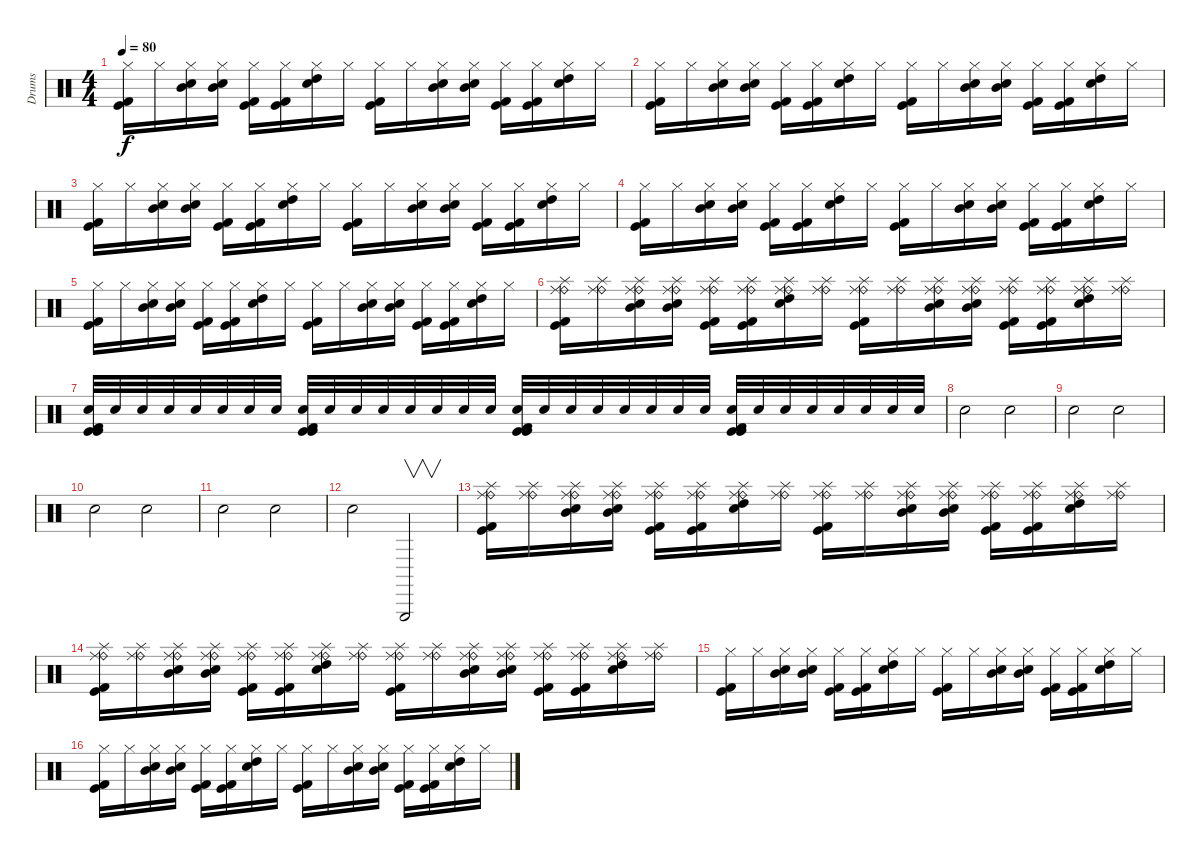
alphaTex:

\track ("Drums" "Drums") {instrument percussion}
\staff {score}
\articulation defaults
\ts (4 4)
\tempo 80
\clef neutral
\ks c
("Hi-Hat (closed)" "Kick (hit)" "Kick (hit) 2").16{dy f} "Hi-Hat (closed)".16 ("Hi-Hat (closed)" "Electric Snare (hit)" "Mid Tom (hit)").16 ("Hi-Hat (closed)" "Electric Snare (hit)" "Mid Tom (hit)").16 ("Hi-Hat (closed)" "Kick (hit)" "Kick (hit) 2").16 ("Hi-Hat (closed)" "Kick (hit)" "Kick (hit) 2").16 ("Hi-Hat (closed)" "Electric Snare (hit)" "High Tom (hit)").16 "Hi-Hat (closed)".16 ("Hi-Hat (closed)" "Kick (hit)" "Kick (hit) 2").16 "Hi-Hat (closed)".16 ("Hi-Hat (closed)" "Electric Snare (hit)" "Mid Tom (hit)").16 ("Hi-Hat (closed)" "Electric Snare (hit)" "Mid Tom (hit)").16 ("Hi-Hat (closed)" "Kick (hit)" "Kick (hit) 2").16 ("Hi-Hat (closed)" "Kick (hit)" "Kick (hit) 2").16 ("Hi-Hat (closed)" "Electric Snare (hit)" "High Tom (hit)").16 "Hi-Hat (closed)".16 |
("Hi-Hat (closed)" "Kick (hit)" "Kick (hit) 2").16 "Hi-Hat (closed)".16 ("Hi-Hat (closed)" "Electric Snare (hit)" "Mid Tom (hit)").16 ("Hi-Hat (closed)" "Electric Snare (hit)" "Mid Tom (hit)").16 ("Hi-Hat (closed)" "Kick (hit)" "Kick (hit) 2").16 ("Hi-Hat (closed)" "Kick (hit)" "Kick (hit) 2").16 ("Hi-Hat (closed)" "Electric Snare (hit)" "High Tom (hit)").16 "Hi-Hat (closed)".16 ("Hi-Hat (closed)" "Kick (hit)" "Kick (hit) 2").16 "Hi-Hat (closed)".16 ("Hi-Hat (closed)" "Electric Snare (hit)" "Mid Tom (hit)").16 ("Hi-Hat (closed)" "Electric Snare (hit)" "Mid Tom (hit)").16 ("Hi-Hat (closed)" "Kick (hit)" "Kick (hit) 2").16 ("Hi-Hat (closed)" "Kick (hit)" "Kick (hit) 2").16 ("Hi-Hat (closed)" "Electric Snare (hit)" "High Tom (hit)").16 "Hi-Hat (closed)".16 |
("Hi-Hat (closed)" "Kick (hit)" "Kick (hit) 2").16 "Hi-Hat (closed)".16 ("Hi-Hat (closed)" "Electric Snare (hit)" "Mid Tom (hit)").16 ("Hi-Hat (closed)" "Electric Snare (hit)" "Mid Tom (hit)").16 ("Hi-Hat (closed)" "Kick (hit)" "Kick (hit) 2").16 ("Hi-Hat (closed)" "Kick (hit)" "Kick (hit) 2").16 ("Hi-Hat (closed)" "Electric Snare (hit)" "High Tom (hit)").16 "Hi-Hat (closed)".16 ("Hi-Hat (closed)" "Kick (hit)" "Kick (hit) 2").16 "Hi-Hat (closed)".16 ("Hi-Hat (closed)" "Electric Snare (hit)" "Mid Tom (hit)").16 ("Hi-Hat (closed)" "Electric Snare (hit)" "Mid Tom (hit)").16 ("Hi-Hat (closed)" "Kick (hit)" "Kick (hit) 2").16 ("Hi-Hat (closed)" "Kick (hit)" "Kick (hit) 2").16 ("Hi-Hat (closed)" "Electric Snare (hit)" "High Tom (hit)").16 "Hi-Hat (closed)".16 |
("Hi-Hat (closed)" "Kick (hit)" "Kick (hit) 2").16 "Hi-Hat (closed)".16 ("Hi-Hat (closed)" "Electric Snare (hit)" "Mid Tom (hit)").16 ("Hi-Hat (closed)" "Electric Snare (hit)" "Mid Tom (hit)").16 ("Hi-Hat (closed)" "Kick (hit)" "Kick (hit) 2").16 ("Hi-Hat (closed)" "Kick (hit)" "Kick (hit) 2").16 ("Hi-Hat (closed)" "Electric Snare (hit)" "High Tom (hit)").16 "Hi-Hat (closed)".16 ("Hi-Hat (closed)" "Kick (hit)" "Kick (hit) 2").16 "Hi-Hat (closed)".16 ("Hi-Hat (closed)" "Electric Snare (hit)" "Mid Tom (hit)").16 ("Hi-Hat (closed)" "Electric Snare (hit)" "Mid Tom (hit)").16 ("Hi-Hat (closed)" "Kick (hit)" "Kick (hit) 2").16 ("Hi-Hat (closed)" "Kick (hit)" "Kick (hit) 2").16 ("Hi-Hat (closed)" "Electric Snare (hit)" "High Tom (hit)").16 "Hi-Hat (closed)".16 |
("Hi-Hat (closed)" "Kick (hit)" "Kick (hit) 2").16 "Hi-Hat (closed)".16 ("Hi-Hat (closed)" "Electric Snare (hit)" "Mid Tom (hit)").16 ("Hi-Hat (closed)" "Electric Snare (hit)" "Mid Tom (hit)").16 ("Hi-Hat (closed)" "Kick (hit)" "Kick (hit) 2").16 ("Hi-Hat (closed)" "Kick (hit)" "Kick (hit) 2").16 ("Hi-Hat (closed)" "Electric Snare (hit)" "High Tom (hit)").16 "Hi-Hat (closed)".16 ("Hi-Hat (closed)" "Kick (hit)" "Kick (hit) 2").16 "Hi-Hat (closed)".16 ("Hi-Hat (closed)" "Electric Snare (hit)" "Mid Tom (hit)").16 ("Hi-Hat (closed)" "Electric Snare (hit)" "Mid Tom (hit)").16 ("Hi-Hat (closed)" "Kick (hit)" "Kick (hit) 2").16 ("Hi-Hat (closed)" "Kick (hit)" "Kick (hit) 2").16 ("Hi-Hat (closed)" "Electric Snare (hit)" "High Tom (hit)").16 "Hi-Hat (closed)".16 |
("Splash (hit)" "Ride (bell)" "Kick (hit)" "Kick (hit) 2" "Ride (middle)").16 ("Splash (hit)" "Ride (bell)" "Ride (middle)").16 ("Splash (hit)" "Ride (bell)" "Electric Snare (hit)" "Mid Tom (hit)" "Ride (middle)").16 ("Splash (hit)" "Ride (bell)" "Electric Snare (hit)" "Mid Tom (hit)" "Ride (middle)").16 ("Splash (hit)" "Ride (bell)" "Kick (hit)" "Kick (hit) 2" "Ride (middle)").16 ("Splash (hit)" "Ride (bell)" "Kick (hit)" "Kick (hit) 2" "Ride (middle)").16 ("Splash (hit)" "Ride (bell)" "Electric Snare (hit)" "High Tom (hit)" "Ride (middle)").16 ("Splash (hit)" "Ride (bell)" "Ride (middle)").16 ("Splash (hit)" "Ride (bell)" "Kick (hit)" "Kick (hit) 2" "Ride (middle)").16 ("Splash (hit)" "Ride (bell)" "Ride (middle)").16 ("Splash (hit)" "Ride (bell)" "Electric Snare (hit)" "Mid Tom (hit)" "Ride (middle)").16 ("Splash (hit)" "Ride (bell)" "Electric Snare (hit)" "Mid Tom (hit)" "Ride (middle)").16 ("Splash (hit)" "Ride (bell)" "Kick (hit)" "Kick (hit) 2" "Ride (middle)").16 ("Splash (hit)" "Ride (bell)" "Kick (hit)" "Kick (hit) 2" "Ride (middle)").16 ("Splash (hit)" "Ride (bell)" "Electric Snare (hit)" "High Tom (hit)" "Ride (middle)").16 ("Splash (hit)" "Ride (bell)" "Ride (middle)").16 |
("Electric Snare (hit)" "Kick (hit)" "Kick (hit) 2" "Kick (hit)").32 "Electric Snare (hit)".32 "Electric Snare (hit)".32 "Electric Snare (hit)".32 "Electric Snare (hit)".32 "Electric Snare (hit)".32 "Electric Snare (hit)".32 "Electric Snare (hit)".32 ("Electric Snare (hit)" "Kick (hit)" "Kick (hit) 2" "Kick (hit)").32 "Electric Snare (hit)".32 "Electric Snare (hit)".32 "Electric Snare (hit)".32 "Electric Snare (hit)".32 "Electric Snare (hit)".32 "Electric Snare (hit)".32 "Electric Snare (hit)".32 ("Electric Snare (hit)" "Kick (hit)" "Kick (hit) 2" "Kick (hit)").32 "Electric Snare (hit)".32 "Electric Snare (hit)".32 "Electric Snare (hit)".32 "Electric Snare (hit)".32 "Electric Snare (hit)".32 "Electric Snare (hit)".32 "Electric Snare (hit)".32 ("Electric Snare (hit)" "Kick (hit)" "Kick (hit) 2" "Kick (hit)").32 "Electric Snare (hit)".32 "Electric Snare (hit)".32 "Electric Snare (hit)".32 "Electric Snare (hit)".32 "Electric Snare (hit)".32 "Electric Snare (hit)".32 "Electric Snare (hit)".32 |
"Electric Snare (hit)".2 "Electric Snare (hit)".2 |
"Electric Snare (hit)".2 "Electric Snare (hit)".2 |
"Electric Snare (hit)".2 "Electric Snare (hit)".2 |
"Electric Snare (hit)".2 "Electric Snare (hit)".2 |
"Electric Snare (hit)".2 "Triangle (hit)".2{v} |
("Splash (hit)" "Ride (bell)" "Kick (hit)" "Kick (hit) 2" "Ride (middle)").16 ("Splash (hit)" "Ride (bell)" "Ride (middle)").16 ("Splash (hit)" "Ride (bell)" "Electric Snare (hit)" "Mid Tom (hit)" "Ride (middle)").16 ("Splash (hit)" "Ride (bell)" "Electric Snare (hit)" "Mid Tom (hit)" "Ride (middle)").16 ("Splash (hit)" "Ride (bell)" "Kick (hit)" "Kick (hit) 2" "Ride (middle)").16 ("Splash (hit)" "Ride (bell)" "Kick (hit)" "Kick (hit) 2" "Ride (middle)").16 ("Splash (hit)" "Ride (bell)" "Electric Snare (hit)" "High Tom (hit)" "Ride (middle)").16 ("Splash (hit)" "Ride (bell)" "Ride (middle)").16 ("Splash (hit)" "Ride (bell)" "Kick (hit)" "Kick (hit) 2" "Ride (middle)").16 ("Splash (hit)" "Ride (bell)" "Ride (middle)").16 ("Splash (hit)" "Ride (bell)" "Electric Snare (hit)" "Mid Tom (hit)" "Ride (middle)").16 ("Splash (hit)" "Ride (bell)" "Electric Snare (hit)" "Mid Tom (hit)" "Ride (middle)").16 ("Splash (hit)" "Ride (bell)" "Kick (hit)" "Kick (hit) 2" "Ride (middle)").16 ("Splash (hit)" "Ride (bell)" "Kick (hit)" "Kick (hit) 2" "Ride (middle)").16 ("Splash (hit)" "Ride (bell)" "Electric Snare (hit)" "High Tom (hit)" "Ride (middle)").16 ("Splash (hit)" "Ride (bell)" "Ride (middle)").16 |
("Splash (hit)" "Ride (bell)" "Kick (hit)" "Kick (hit) 2" "Ride (middle)").16 ("Splash (hit)" "Ride (bell)" "Ride (middle)").16 ("Splash (hit)" "Ride (bell)" "Electric Snare (hit)" "Mid Tom (hit)" "Ride (middle)").16 ("Splash (hit)" "Ride (bell)" "Electric Snare (hit)" "Mid Tom (hit)" "Ride (middle)").16 ("Splash (hit)" "Ride (bell)" "Kick (hit)" "Kick (hit) 2" "Ride (middle)").16 ("Splash (hit)" "Ride (bell)" "Kick (hit)" "Kick (hit) 2" "Ride (middle)").16 ("Splash (hit)" "Ride (bell)" "Electric Snare (hit)" "High Tom (hit)" "Ride (middle)").16 ("Splash (hit)" "Ride (bell)" "Ride (middle)").16 ("Splash (hit)" "Ride (bell)" "Kick (hit)" "Kick (hit) 2" "Ride (middle)").16 ("Splash (hit)" "Ride (bell)" "Ride (middle)").16 ("Splash (hit)" "Ride (bell)" "Electric Snare (hit)" "Mid Tom (hit)" "Ride (middle)").16 ("Splash (hit)" "Ride (bell)" "Electric Snare (hit)" "Mid Tom (hit)" "Ride (middle)").16 ("Splash (hit)" "Ride (bell)" "Kick (hit)" "Kick (hit) 2" "Ride (middle)").16 ("Splash (hit)" "Ride (bell)" "Kick (hit)" "Kick (hit) 2" "Ride (middle)").16 ("Splash (hit)" "Ride (bell)" "Electric Snare (hit)" "High Tom (hit)" "Ride (middle)").16 ("Splash (hit)" "Ride (bell)" "Ride (middle)").16 |
("Hi-Hat (closed)" "Kick (hit)" "Kick (hit) 2").16 "Hi-Hat (closed)".16 ("Hi-Hat (closed)" "Electric Snare (hit)" "Mid Tom (hit)").16 ("Hi-Hat (closed)" "Electric Snare (hit)" "Mid Tom (hit)").16 ("Hi-Hat (closed)" "Kick (hit)" "Kick (hit) 2").16 ("Hi-Hat (closed)" "Kick (hit)" "Kick (hit) 2").16 ("Hi-Hat (closed)" "Electric Snare (hit)" "High Tom (hit)").16 "Hi-Hat (closed)".16 ("Hi-Hat (closed)" "Kick (hit)" "Kick (hit) 2").16 "Hi-Hat (closed)".16 ("Hi-Hat (closed)" "Electric Snare (hit)" "Mid Tom (hit)").16 ("Hi-Hat (closed)" "Electric Snare (hit)" "Mid Tom (hit)").16 ("Hi-Hat (closed)" "Kick (hit)" "Kick (hit) 2").16 ("Hi-Hat (closed)" "Kick (hit)" "Kick (hit) 2").16 ("Hi-Hat (closed)" "Electric Snare (hit)" "High Tom (hit)").16 "Hi-Hat (closed)".16 |
("Hi-Hat (closed)" "Kick (hit)" "Kick (hit) 2").16 "Hi-Hat (closed)".16 ("Hi-Hat (closed)" "Electric Snare (hit)" "Mid Tom (hit)").16 ("Hi-Hat (closed)" "Electric Snare (hit)" "Mid Tom (hit)").16 ("Hi-Hat (closed)" "Kick (hit)" "Kick (hit) 2").16 ("Hi-Hat (closed)" "Kick (hit)" "Kick (hit) 2").16 ("Hi-Hat (closed)" "Electric Snare (hit)" "High Tom (hit)").16 "Hi-Hat (closed)".16 ("Hi-Hat (closed)" "Kick (hit)" "Kick (hit) 2").16 "Hi-Hat (closed)".16 ("Hi-Hat (closed)" "Electric Snare (hit)" "Mid Tom (hit)").16 ("Hi-Hat (closed)" "Electric Snare (hit)" "Mid Tom (hit)").16 ("Hi-Hat (closed)" "Kick (hit)" "Kick (hit) 2").16 ("Hi-Hat (closed)" "Kick (hit)" "Kick (hit) 2").16 ("Hi-Hat (closed)" "Electric Snare (hit)" "High Tom (hit)").16 "Hi-Hat (closed)".16
